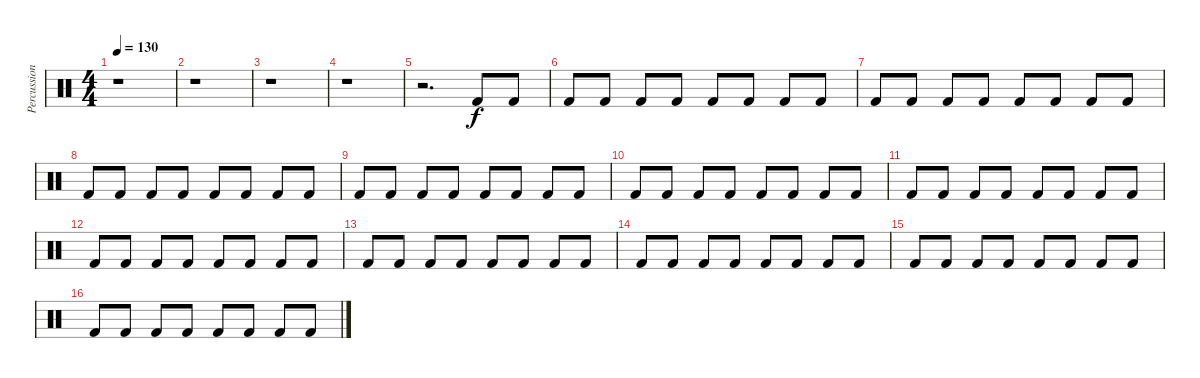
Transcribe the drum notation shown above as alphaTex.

\track ("Percussion" "Percussion") {instrument percussion}
\staff {score}
\articulation defaults
\ts (4 4)
\tempo 130
\clef neutral
\ks c
r.1{dy f} |
r.1 |
r.1 |
r.1 |
r.2{d} "Kick (hit) 2".8{volume 7} "Kick (hit) 2".8 |
"Kick (hit) 2".8 "Kick (hit) 2".8 "Kick (hit) 2".8 "Kick (hit) 2".8 "Kick (hit) 2".8 "Kick (hit) 2".8 "Kick (hit) 2".8 "Kick (hit) 2".8 |
"Kick (hit) 2".8 "Kick (hit) 2".8 "Kick (hit) 2".8 "Kick (hit) 2".8 "Kick (hit) 2".8 "Kick (hit) 2".8 "Kick (hit) 2".8 "Kick (hit) 2".8 |
"Kick (hit) 2".8 "Kick (hit) 2".8 "Kick (hit) 2".8 "Kick (hit) 2".8 "Kick (hit) 2".8 "Kick (hit) 2".8 "Kick (hit) 2".8 "Kick (hit) 2".8 |
"Kick (hit) 2".8 "Kick (hit) 2".8 "Kick (hit) 2".8 "Kick (hit) 2".8 "Kick (hit) 2".8 "Kick (hit) 2".8 "Kick (hit) 2".8 "Kick (hit) 2".8 |
"Kick (hit) 2".8 "Kick (hit) 2".8 "Kick (hit) 2".8 "Kick (hit) 2".8 "Kick (hit) 2".8 "Kick (hit) 2".8 "Kick (hit) 2".8 "Kick (hit) 2".8 |
"Kick (hit) 2".8 "Kick (hit) 2".8 "Kick (hit) 2".8 "Kick (hit) 2".8 "Kick (hit) 2".8 "Kick (hit) 2".8 "Kick (hit) 2".8 "Kick (hit) 2".8 |
"Kick (hit) 2".8 "Kick (hit) 2".8 "Kick (hit) 2".8 "Kick (hit) 2".8 "Kick (hit) 2".8 "Kick (hit) 2".8 "Kick (hit) 2".8 "Kick (hit) 2".8 |
"Kick (hit) 2".8 "Kick (hit) 2".8 "Kick (hit) 2".8 "Kick (hit) 2".8 "Kick (hit) 2".8 "Kick (hit) 2".8 "Kick (hit) 2".8 "Kick (hit) 2".8 |
"Kick (hit) 2".8 "Kick (hit) 2".8 "Kick (hit) 2".8 "Kick (hit) 2".8 "Kick (hit) 2".8 "Kick (hit) 2".8 "Kick (hit) 2".8 "Kick (hit) 2".8 |
"Kick (hit) 2".8 "Kick (hit) 2".8 "Kick (hit) 2".8 "Kick (hit) 2".8 "Kick (hit) 2".8 "Kick (hit) 2".8 "Kick (hit) 2".8 "Kick (hit) 2".8 |
"Kick (hit) 2".8 "Kick (hit) 2".8 "Kick (hit) 2".8 "Kick (hit) 2".8 "Kick (hit) 2".8 "Kick (hit) 2".8 "Kick (hit) 2".8 "Kick (hit) 2".8
